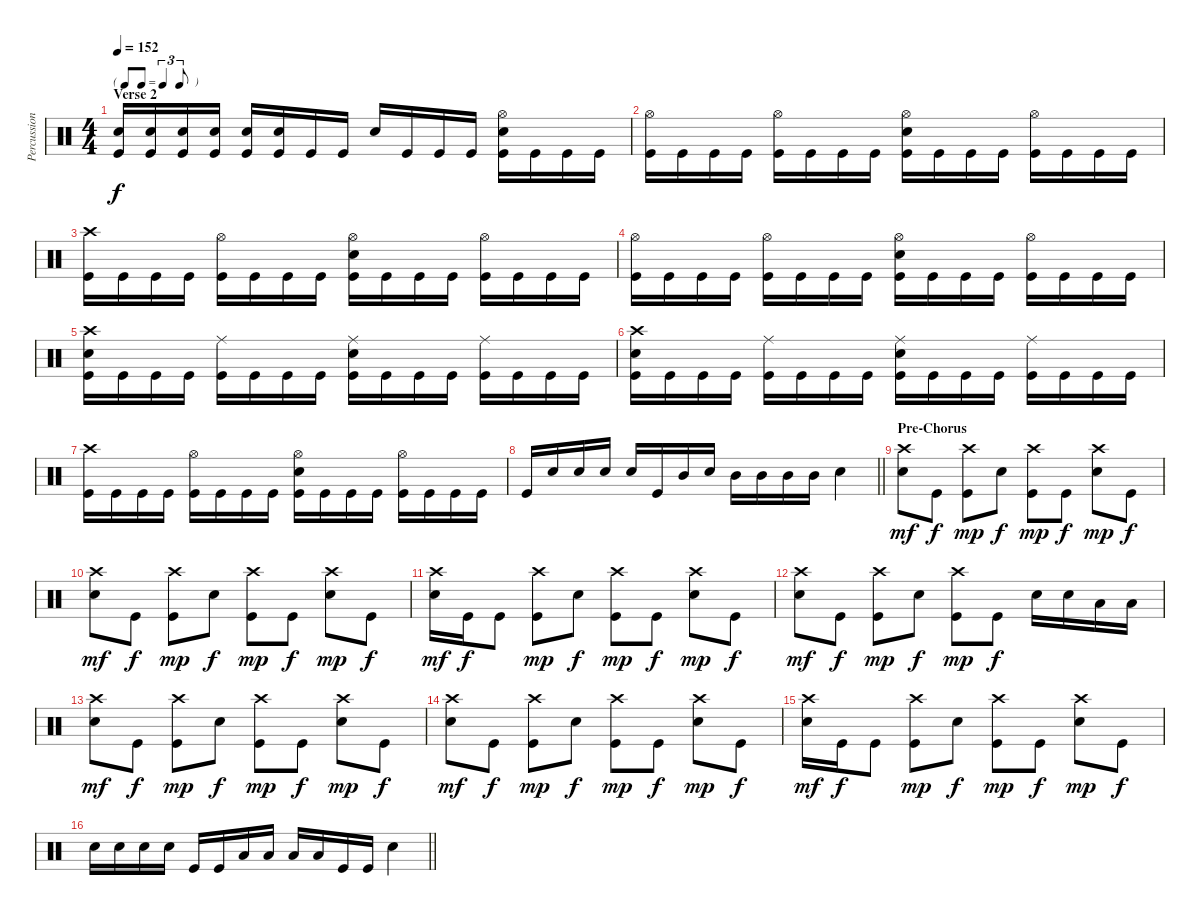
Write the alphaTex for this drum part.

\track ("Percussion" "Percussion") {instrument percussion}
\staff {score}
\articulation defaults
\ts (4 4)
\tf triplet8th
\section ("" "Verse 2")
\tempo 152
\clef neutral
\ks c
("Snare (hit) 2" "Kick (hit)").16{dy f} ("Snare (hit) 2" "Kick (hit)").16 ("Snare (hit) 2" "Kick (hit)").16 ("Snare (hit) 2" "Kick (hit)").16 ("Snare (hit) 2" "Kick (hit)").16 ("Snare (hit) 2" "Kick (hit)").16 "Kick (hit)".16 "Kick (hit)".16 "Snare (hit) 2".16 "Kick (hit)".16 "Kick (hit)".16 "Kick (hit)".16 ("Snare (hit) 2" "Hi-Hat (open)" "Kick (hit)").16 "Kick (hit)".16 "Kick (hit)".16 "Kick (hit)".16 |
("Hi-Hat (open)" "Kick (hit)").16 "Kick (hit)".16 "Kick (hit)".16 "Kick (hit)".16 ("Hi-Hat (open)" "Kick (hit)").16 "Kick (hit)".16 "Kick (hit)".16 "Kick (hit)".16 ("Snare (hit) 2" "Hi-Hat (open)" "Kick (hit)").16 "Kick (hit)".16 "Kick (hit)".16 "Kick (hit)".16 ("Hi-Hat (open)" "Kick (hit)").16 "Kick (hit)".16 "Kick (hit)".16 "Kick (hit)".16 |
("Crash high (hit)" "Kick (hit)").16 "Kick (hit)".16 "Kick (hit)".16 "Kick (hit)".16 ("Hi-Hat (open)" "Kick (hit)").16 "Kick (hit)".16 "Kick (hit)".16 "Kick (hit)".16 ("Snare (hit) 2" "Hi-Hat (open)" "Kick (hit)").16 "Kick (hit)".16 "Kick (hit)".16 "Kick (hit)".16 ("Hi-Hat (open)" "Kick (hit)").16 "Kick (hit)".16 "Kick (hit)".16 "Kick (hit)".16 |
("Hi-Hat (open)" "Kick (hit)").16 "Kick (hit)".16 "Kick (hit)".16 "Kick (hit)".16 ("Hi-Hat (open)" "Kick (hit)").16 "Kick (hit)".16 "Kick (hit)".16 "Kick (hit)".16 ("Snare (hit) 2" "Hi-Hat (open)" "Kick (hit)").16 "Kick (hit)".16 "Kick (hit)".16 "Kick (hit)".16 ("Hi-Hat (open)" "Kick (hit)").16 "Kick (hit)".16 "Kick (hit)".16 "Kick (hit)".16 |
("Kick (hit)" "Crash high (hit)" "Snare (hit) 2").16 "Kick (hit)".16 "Kick (hit)".16 "Kick (hit)".16 ("Ride (middle)" "Kick (hit)").16 "Kick (hit)".16 "Kick (hit)".16 "Kick (hit)".16 ("Ride (middle)" "Snare (hit) 2" "Kick (hit)").16 "Kick (hit)".16 "Kick (hit)".16 "Kick (hit)".16 ("Ride (middle)" "Kick (hit)").16 "Kick (hit)".16 "Kick (hit)".16 "Kick (hit)".16 |
("Kick (hit)" "Crash high (hit)" "Snare (hit) 2").16 "Kick (hit)".16 "Kick (hit)".16 "Kick (hit)".16 ("Ride (middle)" "Kick (hit)").16 "Kick (hit)".16 "Kick (hit)".16 "Kick (hit)".16 ("Ride (middle)" "Snare (hit) 2" "Kick (hit)").16 "Kick (hit)".16 "Kick (hit)".16 "Kick (hit)".16 ("Ride (middle)" "Kick (hit)").16 "Kick (hit)".16 "Kick (hit)".16 "Kick (hit)".16 |
("Crash high (hit)" "Kick (hit)").16 "Kick (hit)".16 "Kick (hit)".16 "Kick (hit)".16 ("Hi-Hat (open)" "Kick (hit)").16 "Kick (hit)".16 "Kick (hit)".16 "Kick (hit)".16 ("Snare (hit) 2" "Hi-Hat (open)" "Kick (hit)").16 "Kick (hit)".16 "Kick (hit)".16 "Kick (hit)".16 ("Hi-Hat (open)" "Kick (hit)").16 "Kick (hit)".16 "Kick (hit)".16 "Kick (hit)".16 |
\barLineRight lightlight "Kick (hit)".16 "Snare (hit) 2".16 "Snare (hit) 2".16 "Snare (hit) 2".16 "Snare (hit) 2".16 "Kick (hit)".16 "Mid Tom (hit)".16 "Snare (hit) 2".16 "Mid Tom (hit)".16 "Mid Tom (hit)".16 "Mid Tom (hit)".16 "Mid Tom (hit)".16 "Snare (hit) 2".4
|
\section ("" "Pre-Chorus")
("Crash high (hit)" "Snare (hit) 2").8{dy mf} "Kick (hit)".8{dy f} ("Crash high (hit)" "Kick (hit)").8{dy mp} "Snare (hit) 2".8{dy f} ("Crash high (hit)" "Kick (hit)").8{dy mp} "Kick (hit)".8{dy f} ("Crash high (hit)" "Snare (hit) 2").8{dy mp} "Kick (hit)".8{dy f} |
("Crash high (hit)" "Snare (hit) 2").8{dy mf} "Kick (hit)".8{dy f} ("Crash high (hit)" "Kick (hit)").8{dy mp} "Snare (hit) 2".8{dy f} ("Crash high (hit)" "Kick (hit)").8{dy mp} "Kick (hit)".8{dy f} ("Crash high (hit)" "Snare (hit) 2").8{dy mp} "Kick (hit)".8{dy f} |
("Crash high (hit)" "Snare (hit) 2").16{dy mf} "Kick (hit)".16{dy f} "Kick (hit)".8 ("Crash high (hit)" "Kick (hit)").8{dy mp} "Snare (hit) 2".8{dy f} ("Crash high (hit)" "Kick (hit)").8{dy mp} "Kick (hit)".8{dy f} ("Crash high (hit)" "Snare (hit) 2").8{dy mp} "Kick (hit)".8{dy f} |
("Crash high (hit)" "Snare (hit) 2").8{dy mf} "Kick (hit)".8{dy f} ("Crash high (hit)" "Kick (hit)").8{dy mp} "Snare (hit) 2".8{dy f} ("Crash high (hit)" "Kick (hit)").8{dy mp} "Kick (hit)".8{dy f} "Snare (hit) 2".16 "Snare (hit) 2".16 "Low Tom (hit)".16 "Low Tom (hit)".16 |
("Crash high (hit)" "Snare (hit) 2").8{dy mf} "Kick (hit)".8{dy f} ("Crash high (hit)" "Kick (hit)").8{dy mp} "Snare (hit) 2".8{dy f} ("Crash high (hit)" "Kick (hit)").8{dy mp} "Kick (hit)".8{dy f} ("Crash high (hit)" "Snare (hit) 2").8{dy mp} "Kick (hit)".8{dy f} |
("Crash high (hit)" "Snare (hit) 2").8{dy mf} "Kick (hit)".8{dy f} ("Crash high (hit)" "Kick (hit)").8{dy mp} "Snare (hit) 2".8{dy f} ("Crash high (hit)" "Kick (hit)").8{dy mp} "Kick (hit)".8{dy f} ("Crash high (hit)" "Snare (hit) 2").8{dy mp} "Kick (hit)".8{dy f} |
("Crash high (hit)" "Snare (hit) 2").16{dy mf} "Kick (hit)".16{dy f} "Kick (hit)".8 ("Crash high (hit)" "Kick (hit)").8{dy mp} "Snare (hit) 2".8{dy f} ("Crash high (hit)" "Kick (hit)").8{dy mp} "Kick (hit)".8{dy f} ("Crash high (hit)" "Snare (hit) 2").8{dy mp} "Kick (hit)".8{dy f} |
\barLineRight lightlight "Snare (hit) 2".16 "Snare (hit) 2".16 "Snare (hit) 2".16 "Snare (hit) 2".16 "Kick (hit)".16 "Kick (hit)".16 "Low Tom (hit)".16 "Low Tom (hit)".16 "Low Tom (hit)".16 "Low Tom (hit)".16 "Kick (hit)".16 "Kick (hit)".16 "Snare (hit) 2".4
